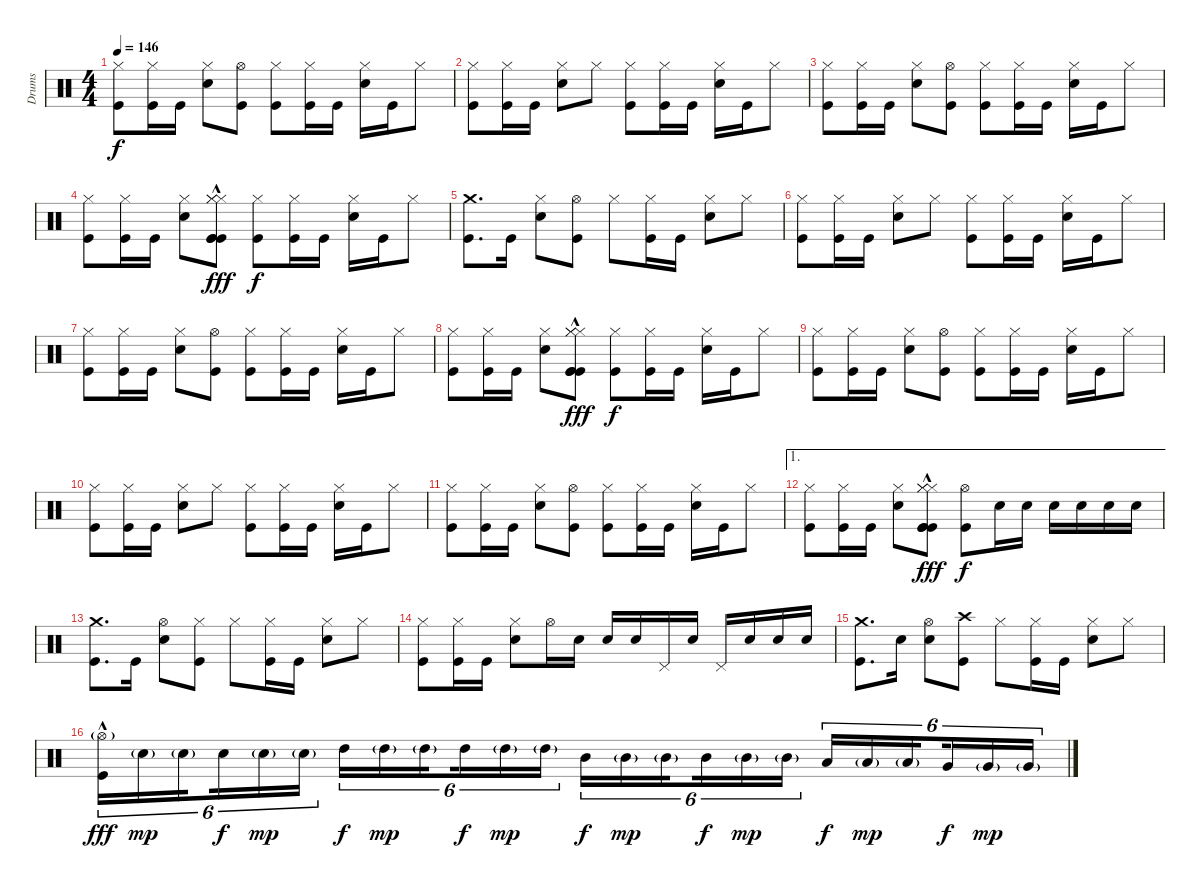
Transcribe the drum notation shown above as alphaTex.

\track ("Drums" "Drums") {instrument percussion}
\staff {score}
\articulation defaults
\ts (4 4)
\tempo 146
\clef neutral
\ks c
("Hi-Hat (closed)" "Kick (hit)").8{dy f} ("Hi-Hat (closed)" "Kick (hit)").16 "Kick (hit)".16 ("Hi-Hat (closed)" "Electric Snare (hit)").8 ("Hi-Hat (open)" "Kick (hit)").8 ("Hi-Hat (closed)" "Kick (hit)").8 ("Hi-Hat (closed)" "Kick (hit)").16 "Kick (hit)".16 ("Hi-Hat (closed)" "Electric Snare (hit)").16 "Kick (hit)".16 "Hi-Hat (closed)".8 |
("Hi-Hat (closed)" "Kick (hit)").8 ("Hi-Hat (closed)" "Kick (hit)").16 "Kick (hit)".16 ("Hi-Hat (closed)" "Electric Snare (hit)").8 "Hi-Hat (closed)".8 ("Hi-Hat (closed)" "Kick (hit)").8 ("Hi-Hat (closed)" "Kick (hit)").16 "Kick (hit)".16 ("Hi-Hat (closed)" "Electric Snare (hit)").16 "Kick (hit)".16 "Hi-Hat (closed)".8 |
("Hi-Hat (closed)" "Kick (hit)").8 ("Hi-Hat (closed)" "Kick (hit)").16 "Kick (hit)".16 ("Hi-Hat (closed)" "Electric Snare (hit)").8 ("Hi-Hat (open)" "Kick (hit)").8 ("Hi-Hat (closed)" "Kick (hit)").8 ("Hi-Hat (closed)" "Kick (hit)").16 "Kick (hit)".16 ("Hi-Hat (closed)" "Electric Snare (hit)").16 "Kick (hit)".16 "Hi-Hat (closed)".8 |
("Hi-Hat (closed)" "Kick (hit)").8 ("Hi-Hat (closed)" "Kick (hit)").16 "Kick (hit)".16 ("Hi-Hat (closed)" "Electric Snare (hit)").8 ("Hi-Hat (closed)"{hac} "Hi-Hat (closed)"{hac} "Hi-Hat (closed)"{hac} "Kick (hit)"{hac} "Kick (hit)"{hac} "Kick (hit)"{hac}).8{dy fff} ("Hi-Hat (closed)" "Kick (hit)").8{dy f} ("Hi-Hat (closed)" "Kick (hit)").16 "Kick (hit)".16 ("Hi-Hat (closed)" "Electric Snare (hit)").16 "Kick (hit)".16 "Hi-Hat (closed)".8 |
("Crash medium (hit)" "Kick (hit)").8{d} "Kick (hit)".16 ("Hi-Hat (closed)" "Electric Snare (hit)").8 ("Hi-Hat (open)" "Kick (hit)").8 "Hi-Hat (closed)".8 ("Hi-Hat (closed)" "Kick (hit)").16 "Kick (hit)".16 ("Hi-Hat (closed)" "Electric Snare (hit)").8 "Hi-Hat (closed)".8 |
("Hi-Hat (closed)" "Kick (hit)").8 ("Hi-Hat (closed)" "Kick (hit)").16 "Kick (hit)".16 ("Hi-Hat (closed)" "Electric Snare (hit)").8 "Hi-Hat (closed)".8 ("Hi-Hat (closed)" "Kick (hit)").8 ("Hi-Hat (closed)" "Kick (hit)").16 "Kick (hit)".16 ("Hi-Hat (closed)" "Electric Snare (hit)").16 "Kick (hit)".16 "Hi-Hat (closed)".8 |
("Hi-Hat (closed)" "Kick (hit)").8 ("Hi-Hat (closed)" "Kick (hit)").16 "Kick (hit)".16 ("Hi-Hat (closed)" "Electric Snare (hit)").8 ("Hi-Hat (open)" "Kick (hit)").8 ("Hi-Hat (closed)" "Kick (hit)").8 ("Hi-Hat (closed)" "Kick (hit)").16 "Kick (hit)".16 ("Hi-Hat (closed)" "Electric Snare (hit)").16 "Kick (hit)".16 "Hi-Hat (closed)".8 |
("Hi-Hat (closed)" "Kick (hit)").8 ("Hi-Hat (closed)" "Kick (hit)").16 "Kick (hit)".16 ("Hi-Hat (closed)" "Electric Snare (hit)").8 ("Hi-Hat (closed)"{hac} "Hi-Hat (closed)"{hac} "Hi-Hat (closed)"{hac} "Kick (hit)"{hac} "Kick (hit)"{hac} "Kick (hit)"{hac}).8{dy fff} ("Hi-Hat (closed)" "Kick (hit)").8{dy f} ("Hi-Hat (closed)" "Kick (hit)").16 "Kick (hit)".16 ("Hi-Hat (closed)" "Electric Snare (hit)").16 "Kick (hit)".16 "Hi-Hat (closed)".8 |
("Hi-Hat (closed)" "Kick (hit)").8 ("Hi-Hat (closed)" "Kick (hit)").16 "Kick (hit)".16 ("Hi-Hat (closed)" "Electric Snare (hit)").8 ("Hi-Hat (open)" "Kick (hit)").8 ("Hi-Hat (closed)" "Kick (hit)").8 ("Hi-Hat (closed)" "Kick (hit)").16 "Kick (hit)".16 ("Hi-Hat (closed)" "Electric Snare (hit)").16 "Kick (hit)".16 "Hi-Hat (closed)".8 |
("Hi-Hat (closed)" "Kick (hit)").8 ("Hi-Hat (closed)" "Kick (hit)").16 "Kick (hit)".16 ("Hi-Hat (closed)" "Electric Snare (hit)").8 "Hi-Hat (closed)".8 ("Hi-Hat (closed)" "Kick (hit)").8 ("Hi-Hat (closed)" "Kick (hit)").16 "Kick (hit)".16 ("Hi-Hat (closed)" "Electric Snare (hit)").16 "Kick (hit)".16 "Hi-Hat (closed)".8 |
("Hi-Hat (closed)" "Kick (hit)").8 ("Hi-Hat (closed)" "Kick (hit)").16 "Kick (hit)".16 ("Hi-Hat (closed)" "Electric Snare (hit)").8 ("Hi-Hat (open)" "Kick (hit)").8 ("Hi-Hat (closed)" "Kick (hit)").8 ("Hi-Hat (closed)" "Kick (hit)").16 "Kick (hit)".16 ("Hi-Hat (closed)" "Electric Snare (hit)").16 "Kick (hit)".16 "Hi-Hat (closed)".8 |
\ae 1
("Hi-Hat (closed)" "Kick (hit)").8 ("Hi-Hat (closed)" "Kick (hit)").16 "Kick (hit)".16 ("Hi-Hat (closed)" "Electric Snare (hit)").8 ("Hi-Hat (closed)"{hac} "Hi-Hat (closed)"{hac} "Hi-Hat (closed)"{hac} "Kick (hit)"{hac} "Kick (hit)"{hac} "Kick (hit)"{hac}).8{dy fff} ("Hi-Hat (open)" "Kick (hit)").8{dy f} "Electric Snare (hit)".16 "Electric Snare (hit)".16 "Electric Snare (hit)".16 "Electric Snare (hit)".16 "Electric Snare (hit)".16 "Electric Snare (hit)".16 |
("Crash medium (hit)" "Kick (hit)").8{d} "Kick (hit)".16 ("Hi-Hat (open)" "Electric Snare (hit)").8 ("Hi-Hat (closed)" "Kick (hit)").8 "Hi-Hat (closed)".8 ("Hi-Hat (closed)" "Kick (hit)").16 "Kick (hit)".16 ("Hi-Hat (closed)" "Electric Snare (hit)").8 "Hi-Hat (closed)".8 |
("Hi-Hat (closed)" "Kick (hit)").8 ("Hi-Hat (closed)" "Kick (hit)").16 "Kick (hit)".16 ("Hi-Hat (closed)" "Electric Snare (hit)").8 "Hi-Hat (open)".16 "Electric Snare (hit)".16 "Electric Snare (hit)".16 "Electric Snare (hit)".16 "Pedal Hi-Hat (hit)".16 "Electric Snare (hit)".16 "Pedal Hi-Hat (hit)".16 "Electric Snare (hit)".16 "Electric Snare (hit)".16 "Electric Snare (hit)".16 |
("Crash medium (hit)" "Kick (hit)").8{d} "Electric Snare (hit)".16 ("Hi-Hat (open)" "Electric Snare (hit)").8 ("Crash high (hit)" "Kick (hit)").8 "Hi-Hat (closed)".8 ("Hi-Hat (closed)" "Kick (hit)").16 "Kick (hit)".16 ("Hi-Hat (closed)" "Electric Snare (hit)").8 "Hi-Hat (closed)".8 |
("Hi-Hat (open)"{g} "Kick (hit)"{hac}).16{tu (6 4) dy fff} "Electric Snare (hit)"{g}.16{tu (6 4) dy mp} "Electric Snare (hit)"{g}.16{tu (6 4) beam splitsecondary} "Electric Snare (hit)".16{tu (6 4) dy f} "Electric Snare (hit)"{g}.16{tu (6 4) dy mp} "Electric Snare (hit)"{g}.16{tu (6 4)} "High Tom (hit)".16{tu (6 4) dy f} "High Tom (hit)"{g}.16{tu (6 4) dy mp} "High Tom (hit)"{g}.16{tu (6 4) beam splitsecondary} "High Tom (hit)".16{tu (6 4) dy f} "High Tom (hit)"{g}.16{tu (6 4) dy mp} "High Tom (hit)"{g}.16{tu (6 4)} "Mid Tom (hit)".16{tu (6 4) dy f} "Mid Tom (hit)"{g}.16{tu (6 4) dy mp} "Mid Tom (hit)"{g}.16{tu (6 4) beam splitsecondary} "Mid Tom (hit)".16{tu (6 4) dy f} "Mid Tom (hit)"{g}.16{tu (6 4) dy mp} "Mid Tom (hit)"{g}.16{tu (6 4)} "Low Tom (hit)".16{tu (6 4) dy f} "Low Tom (hit)"{g}.16{tu (6 4) dy mp} "Low Tom (hit)"{g}.16{tu (6 4) beam splitsecondary} "Very Low Tom (hit)".16{tu (6 4) dy f} "Very Low Tom (hit)"{g}.16{tu (6 4) dy mp} "Very Low Tom (hit)"{g}.16{tu (6 4)}
